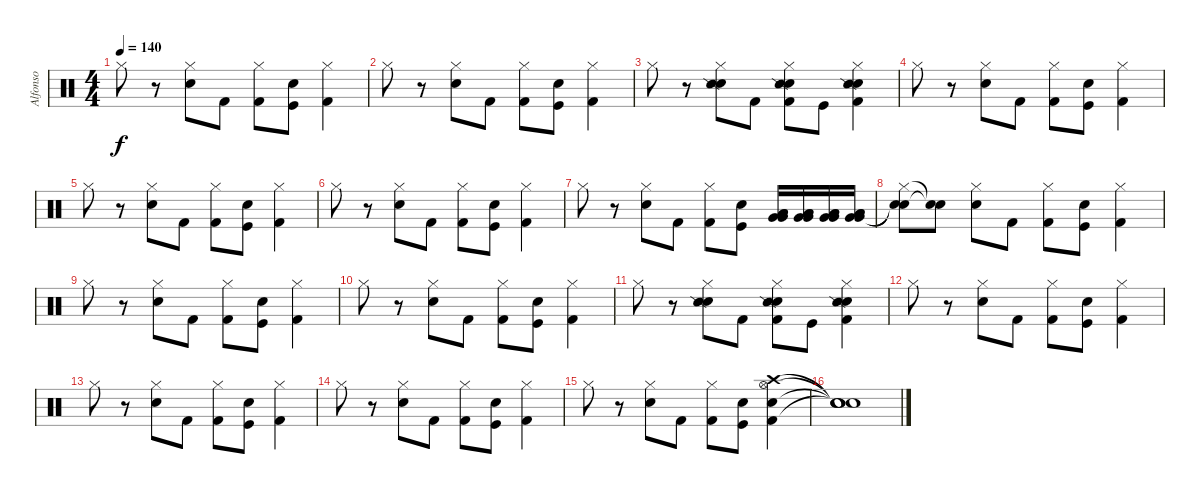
\track ("Alfonso" "Alfonso") {instrument percussion}
\staff {score}
\articulation defaults
\ts (4 4)
\tempo 140
\clef neutral
\ks c "Hi-Hat (closed)".8{dy f}
r.8 ("Hi-Hat (closed)" "Electric Snare (hit)").8 "Kick (hit) 2".8 ("Hi-Hat (closed)" "Kick (hit) 2").8 ("Electric Snare (hit)" "Kick (hit)").8 ("Hi-Hat (closed)" "Kick (hit) 2").4 |
"Hi-Hat (closed)".8 r.8 ("Hi-Hat (closed)" "Electric Snare (hit)").8 "Kick (hit) 2".8 ("Hi-Hat (closed)" "Kick (hit) 2").8 ("Electric Snare (hit)" "Kick (hit)").8 ("Hi-Hat (closed)" "Kick (hit) 2").4 |
"Hi-Hat (closed)".8 r.8 ("Hi-Hat (closed)" "Electric Snare (hit)" "Snare (side stick) 2").8 "Kick (hit) 2".8 ("Hi-Hat (closed)" "Electric Snare (hit)" "Kick (hit) 2" "Snare (side stick) 2").8 "Kick (hit)".8 ("Hi-Hat (closed)" "Electric Snare (hit)" "Kick (hit) 2" "Snare (side stick) 2").4 |
"Hi-Hat (closed)".8 r.8 ("Hi-Hat (closed)" "Electric Snare (hit)").8 "Kick (hit) 2".8 ("Hi-Hat (closed)" "Kick (hit) 2").8 ("Electric Snare (hit)" "Kick (hit)").8 ("Hi-Hat (closed)" "Kick (hit) 2").4 |
"Hi-Hat (closed)".8 r.8 ("Hi-Hat (closed)" "Electric Snare (hit)").8 "Kick (hit) 2".8 ("Hi-Hat (closed)" "Kick (hit) 2").8 ("Electric Snare (hit)" "Kick (hit)").8 ("Hi-Hat (closed)" "Kick (hit) 2").4 |
"Hi-Hat (closed)".8 r.8 ("Hi-Hat (closed)" "Electric Snare (hit)").8 "Kick (hit) 2".8 ("Hi-Hat (closed)" "Kick (hit) 2").8 ("Electric Snare (hit)" "Kick (hit)").8 ("Hi-Hat (closed)" "Kick (hit) 2").4 |
"Hi-Hat (closed)".8 r.8 ("Hi-Hat (closed)" "Electric Snare (hit)").8 "Kick (hit) 2".8 ("Hi-Hat (closed)" "Kick (hit) 2").8 ("Electric Snare (hit)" "Kick (hit)").8 ("Low Floor Tom (hit)" "Very Low Tom (hit)" "Very Low Tom (hit)" "Low Floor Tom (hit)").16 ("Low Floor Tom (hit)" "Very Low Tom (hit)" "Very Low Tom (hit)" "Low Floor Tom (hit)").16 ("Low Floor Tom (hit)" "Very Low Tom (hit)" "Very Low Tom (hit)" "Low Floor Tom (hit)").16 ("Low Floor Tom (hit)" "Very Low Tom (hit)" "Very Low Tom (hit)" "Low Floor Tom (hit)").16 |
("Hi-Hat (closed)" "Snare (hit)"{t} "Snare (hit)"{t}).8 ("Snare (hit)"{t} "Snare (hit)"{t}).8 ("Hi-Hat (closed)" "Electric Snare (hit)").8 "Kick (hit) 2".8 ("Hi-Hat (closed)" "Kick (hit) 2").8 ("Electric Snare (hit)" "Kick (hit)").8 ("Hi-Hat (closed)" "Kick (hit) 2").4 |
"Hi-Hat (closed)".8 r.8 ("Hi-Hat (closed)" "Electric Snare (hit)").8 "Kick (hit) 2".8 ("Hi-Hat (closed)" "Kick (hit) 2").8 ("Electric Snare (hit)" "Kick (hit)").8 ("Hi-Hat (closed)" "Kick (hit) 2").4 |
"Hi-Hat (closed)".8 r.8 ("Hi-Hat (closed)" "Electric Snare (hit)").8 "Kick (hit) 2".8 ("Hi-Hat (closed)" "Kick (hit) 2").8 ("Electric Snare (hit)" "Kick (hit)").8 ("Hi-Hat (closed)" "Kick (hit) 2").4 |
"Hi-Hat (closed)".8 r.8 ("Hi-Hat (closed)" "Electric Snare (hit)" "Snare (side stick) 2").8 "Kick (hit) 2".8 ("Hi-Hat (closed)" "Electric Snare (hit)" "Kick (hit) 2" "Snare (side stick) 2").8 "Kick (hit)".8 ("Hi-Hat (closed)" "Electric Snare (hit)" "Kick (hit) 2" "Snare (side stick) 2").4 |
"Hi-Hat (closed)".8 r.8 ("Hi-Hat (closed)" "Electric Snare (hit)").8 "Kick (hit) 2".8 ("Hi-Hat (closed)" "Kick (hit) 2").8 ("Electric Snare (hit)" "Kick (hit)").8 ("Hi-Hat (closed)" "Kick (hit) 2").4 |
"Hi-Hat (closed)".8 r.8 ("Hi-Hat (closed)" "Electric Snare (hit)").8 "Kick (hit) 2".8 ("Hi-Hat (closed)" "Kick (hit) 2").8 ("Electric Snare (hit)" "Kick (hit)").8 ("Hi-Hat (closed)" "Kick (hit) 2").4 |
"Hi-Hat (closed)".8 r.8 ("Hi-Hat (closed)" "Electric Snare (hit)").8 "Kick (hit) 2".8 ("Hi-Hat (closed)" "Kick (hit) 2").8 ("Electric Snare (hit)" "Kick (hit)").8 ("Hi-Hat (closed)" "Kick (hit) 2").4 |
"Hi-Hat (closed)".8 r.8 ("Hi-Hat (closed)" "Electric Snare (hit)").8 "Kick (hit) 2".8 ("Hi-Hat (closed)" "Kick (hit) 2").8 ("Electric Snare (hit)" "Kick (hit)").8 ("Kick (hit) 2" "Hi-Hat (open)" "Crash high (hit)" "Electric Snare (hit)").4 |
("Snare (hit)"{t} "Snare (hit)"{t} "Snare (hit)"{t} "Snare (hit)"{t}).1
